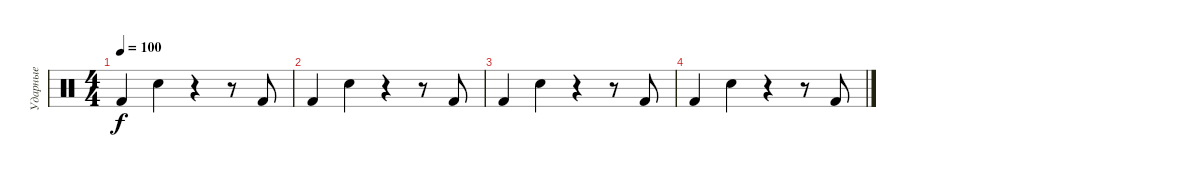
\track ("Ударные" "Ударные") {instrument percussion}
\staff {score}
\articulation defaults
\ts (4 4)
\tempo 100
\clef neutral
\ks c "Kick (hit) 2".4{dy f} "Hand Clap (hit)".4
r.4 r.8 "Kick (hit) 2".8 |
"Kick (hit) 2".4 "Hand Clap (hit)".4 r.4 r.8 "Kick (hit) 2".8 |
"Kick (hit) 2".4 "Hand Clap (hit)".4 r.4 r.8 "Kick (hit) 2".8 |
"Kick (hit) 2".4 "Hand Clap (hit)".4 r.4 r.8 "Kick (hit) 2".8
